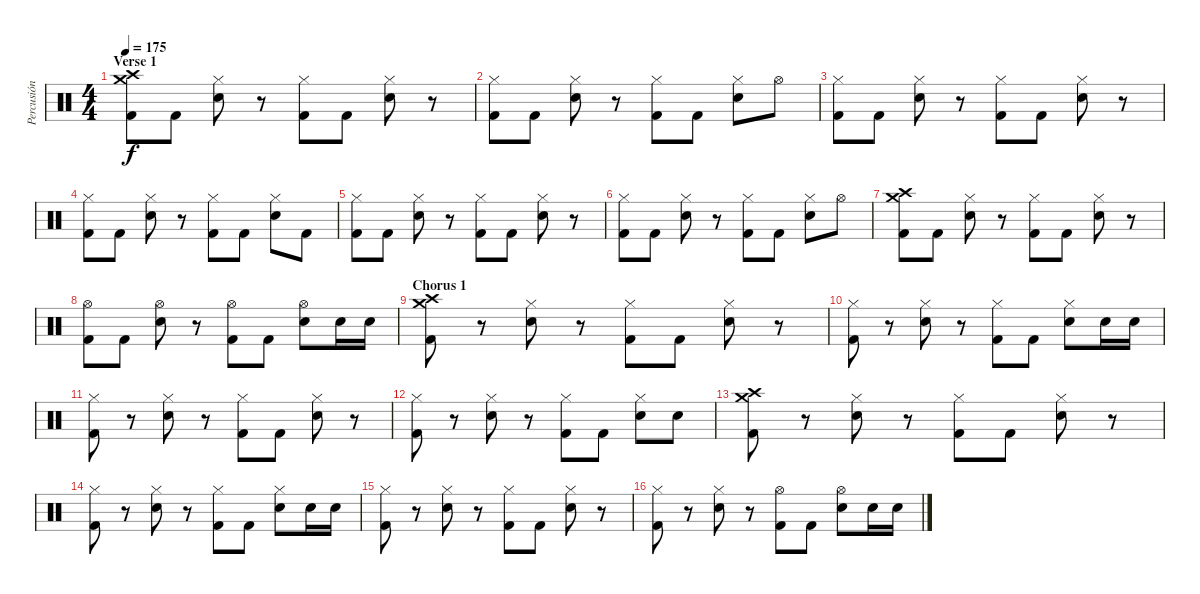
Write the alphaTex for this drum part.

\track ("Percusión" "Percusión") {instrument percussion}
\staff {score}
\articulation defaults
\ts (4 4)
\section ("" "Verse 1")
\tempo 175
\clef neutral
\ks c
("Crash high (hit)" "Crash medium (hit)" "Kick (hit) 2").8{dy f} "Kick (hit) 2".8 ("Hi-Hat (closed)" "Electric Snare (hit)").8 r.8 ("Hi-Hat (closed)" "Kick (hit) 2").8 "Kick (hit) 2".8 ("Hi-Hat (closed)" "Electric Snare (hit)").8 r.8 |
("Hi-Hat (closed)" "Kick (hit) 2").8 "Kick (hit) 2".8 ("Hi-Hat (closed)" "Electric Snare (hit)").8 r.8 ("Hi-Hat (closed)" "Kick (hit) 2").8 "Kick (hit) 2".8 ("Hi-Hat (closed)" "Electric Snare (hit)").8 "Hi-Hat (open)".8 |
("Hi-Hat (closed)" "Kick (hit) 2").8 "Kick (hit) 2".8 ("Hi-Hat (closed)" "Electric Snare (hit)").8 r.8 ("Hi-Hat (closed)" "Kick (hit) 2").8 "Kick (hit) 2".8 ("Hi-Hat (closed)" "Electric Snare (hit)").8 r.8 |
("Hi-Hat (closed)" "Kick (hit) 2").8 "Kick (hit) 2".8 ("Hi-Hat (closed)" "Electric Snare (hit)").8 r.8 ("Hi-Hat (closed)" "Kick (hit) 2").8 "Kick (hit) 2".8 ("Hi-Hat (closed)" "Electric Snare (hit)").8 "Kick (hit) 2".8 |
("Hi-Hat (closed)" "Kick (hit) 2").8 "Kick (hit) 2".8 ("Hi-Hat (closed)" "Electric Snare (hit)").8 r.8 ("Hi-Hat (closed)" "Kick (hit) 2").8 "Kick (hit) 2".8 ("Hi-Hat (closed)" "Electric Snare (hit)").8 r.8 |
("Hi-Hat (closed)" "Kick (hit) 2").8 "Kick (hit) 2".8 ("Hi-Hat (closed)" "Electric Snare (hit)").8 r.8 ("Hi-Hat (closed)" "Kick (hit) 2").8 "Kick (hit) 2".8 ("Hi-Hat (closed)" "Electric Snare (hit)").8 "Hi-Hat (open)".8 |
("Crash high (hit)" "Crash medium (hit)" "Kick (hit) 2").8 "Kick (hit) 2".8 ("Hi-Hat (closed)" "Electric Snare (hit)").8 r.8 ("Hi-Hat (closed)" "Kick (hit) 2").8 "Kick (hit) 2".8 ("Hi-Hat (closed)" "Electric Snare (hit)").8 r.8 |
("Hi-Hat (open)" "Kick (hit) 2").8 "Kick (hit) 2".8 ("Hi-Hat (open)" "Electric Snare (hit)").8 r.8 ("Hi-Hat (open)" "Kick (hit) 2").8 "Kick (hit) 2".8 ("Hi-Hat (open)" "Electric Snare (hit)").8 "Electric Snare (hit)".16 "Electric Snare (hit)".16 |
\section ("" "Chorus 1")
("Crash high (hit)" "Crash medium (hit)" "Kick (hit) 2").8 r.8 ("Hi-Hat (closed)" "Electric Snare (hit)").8 r.8 ("Hi-Hat (closed)" "Kick (hit) 2").8 "Kick (hit) 2".8 ("Hi-Hat (closed)" "Electric Snare (hit)").8 r.8 |
("Hi-Hat (closed)" "Kick (hit) 2").8 r.8 ("Hi-Hat (closed)" "Electric Snare (hit)").8 r.8 ("Hi-Hat (closed)" "Kick (hit) 2").8 "Kick (hit) 2".8 ("Hi-Hat (closed)" "Electric Snare (hit)").8 "Electric Snare (hit)".16 "Electric Snare (hit)".16 |
("Hi-Hat (closed)" "Kick (hit) 2").8 r.8 ("Hi-Hat (closed)" "Electric Snare (hit)").8 r.8 ("Hi-Hat (closed)" "Kick (hit) 2").8 "Kick (hit) 2".8 ("Hi-Hat (closed)" "Electric Snare (hit)").8 r.8 |
("Hi-Hat (closed)" "Kick (hit) 2").8 r.8 ("Hi-Hat (closed)" "Electric Snare (hit)").8 r.8 ("Hi-Hat (closed)" "Kick (hit) 2").8 "Kick (hit) 2".8 ("Hi-Hat (closed)" "Electric Snare (hit)").8 "Electric Snare (hit)".8 |
("Crash high (hit)" "Crash medium (hit)" "Kick (hit) 2").8 r.8 ("Hi-Hat (closed)" "Electric Snare (hit)").8 r.8 ("Hi-Hat (closed)" "Kick (hit) 2").8 "Kick (hit) 2".8 ("Hi-Hat (closed)" "Electric Snare (hit)").8 r.8 |
("Hi-Hat (closed)" "Kick (hit) 2").8 r.8 ("Hi-Hat (closed)" "Electric Snare (hit)").8 r.8 ("Hi-Hat (closed)" "Kick (hit) 2").8 "Kick (hit) 2".8 ("Hi-Hat (closed)" "Electric Snare (hit)").8 "Electric Snare (hit)".16 "Electric Snare (hit)".16 |
("Hi-Hat (closed)" "Kick (hit) 2").8 r.8 ("Hi-Hat (closed)" "Electric Snare (hit)").8 r.8 ("Hi-Hat (closed)" "Kick (hit) 2").8 "Kick (hit) 2".8 ("Hi-Hat (closed)" "Electric Snare (hit)").8 r.8 |
("Hi-Hat (closed)" "Kick (hit) 2").8 r.8 ("Hi-Hat (closed)" "Electric Snare (hit)").8 r.8 ("Hi-Hat (open)" "Kick (hit) 2").8 "Kick (hit) 2".8 ("Hi-Hat (open)" "Electric Snare (hit)").8 "Electric Snare (hit)".16 "Electric Snare (hit)".16
